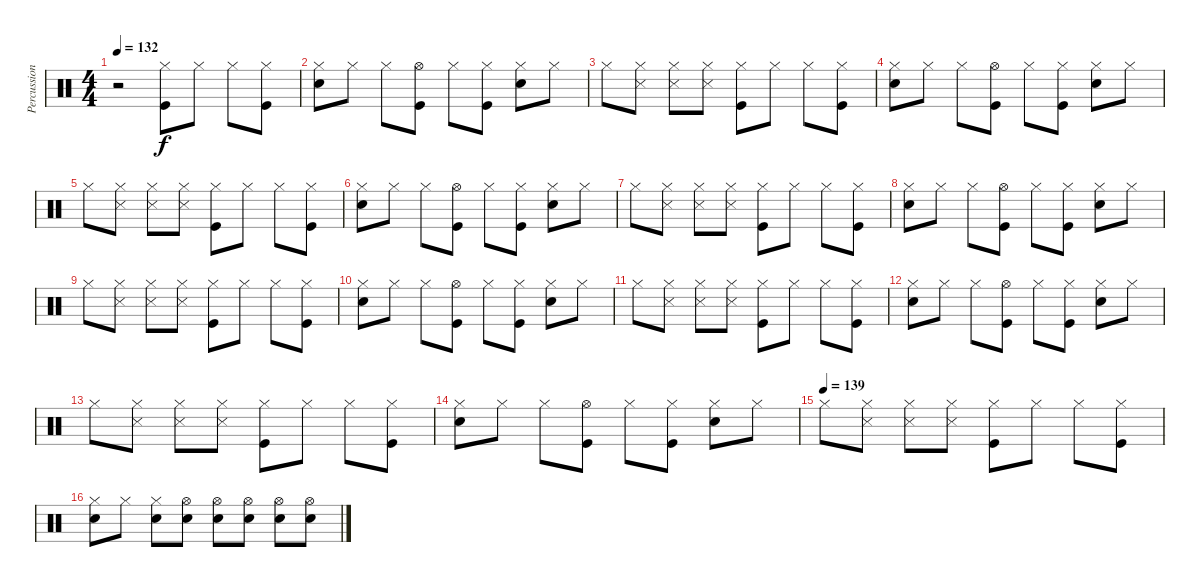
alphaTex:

\track ("Percussion" "Percussion") {instrument percussion}
\staff {score}
\articulation defaults
\ts (4 4)
\tempo 132
\clef neutral
\ks c
r.2{dy f} ("Kick (hit)" "Hi-Hat (closed)").8 "Hi-Hat (closed)".8 "Hi-Hat (closed)".8 ("Kick (hit)" "Hi-Hat (closed)").8 |
("Electric Snare (hit)" "Hi-Hat (closed)").8 "Hi-Hat (closed)".8 "Hi-Hat (closed)".8 ("Kick (hit)" "Hi-Hat (open)").8 "Hi-Hat (closed)".8 ("Kick (hit)" "Hi-Hat (closed)").8 ("Electric Snare (hit)" "Hi-Hat (closed)").8 "Hi-Hat (closed)".8 |
"Hi-Hat (closed)".8 ("Snare (side stick) 3" "Hi-Hat (closed)").8 ("Snare (side stick) 3" "Hi-Hat (closed)").8 ("Snare (side stick) 3" "Hi-Hat (closed)").8 ("Kick (hit)" "Hi-Hat (closed)").8 "Hi-Hat (closed)".8 "Hi-Hat (closed)".8 ("Kick (hit)" "Hi-Hat (closed)").8 |
("Electric Snare (hit)" "Hi-Hat (closed)").8 "Hi-Hat (closed)".8 "Hi-Hat (closed)".8 ("Kick (hit)" "Hi-Hat (open)").8 "Hi-Hat (closed)".8 ("Kick (hit)" "Hi-Hat (closed)").8 ("Electric Snare (hit)" "Hi-Hat (closed)").8 "Hi-Hat (closed)".8 |
"Hi-Hat (closed)".8 ("Snare (side stick) 3" "Hi-Hat (closed)").8 ("Snare (side stick) 3" "Hi-Hat (closed)").8 ("Snare (side stick) 3" "Hi-Hat (closed)").8 ("Kick (hit)" "Hi-Hat (closed)").8 "Hi-Hat (closed)".8 "Hi-Hat (closed)".8 ("Kick (hit)" "Hi-Hat (closed)").8 |
("Electric Snare (hit)" "Hi-Hat (closed)").8 "Hi-Hat (closed)".8 "Hi-Hat (closed)".8 ("Kick (hit)" "Hi-Hat (open)").8 "Hi-Hat (closed)".8 ("Kick (hit)" "Hi-Hat (closed)").8 ("Electric Snare (hit)" "Hi-Hat (closed)").8 "Hi-Hat (closed)".8 |
"Hi-Hat (closed)".8 ("Snare (side stick) 3" "Hi-Hat (closed)").8 ("Snare (side stick) 3" "Hi-Hat (closed)").8 ("Snare (side stick) 3" "Hi-Hat (closed)").8 ("Kick (hit)" "Hi-Hat (closed)").8 "Hi-Hat (closed)".8 "Hi-Hat (closed)".8 ("Kick (hit)" "Hi-Hat (closed)").8 |
("Electric Snare (hit)" "Hi-Hat (closed)").8 "Hi-Hat (closed)".8 "Hi-Hat (closed)".8 ("Kick (hit)" "Hi-Hat (open)").8 "Hi-Hat (closed)".8 ("Kick (hit)" "Hi-Hat (closed)").8 ("Electric Snare (hit)" "Hi-Hat (closed)").8 "Hi-Hat (closed)".8 |
"Hi-Hat (closed)".8 ("Snare (side stick) 3" "Hi-Hat (closed)").8 ("Snare (side stick) 3" "Hi-Hat (closed)").8 ("Snare (side stick) 3" "Hi-Hat (closed)").8 ("Kick (hit)" "Hi-Hat (closed)").8 "Hi-Hat (closed)".8 "Hi-Hat (closed)".8 ("Kick (hit)" "Hi-Hat (closed)").8 |
("Electric Snare (hit)" "Hi-Hat (closed)").8 "Hi-Hat (closed)".8 "Hi-Hat (closed)".8 ("Kick (hit)" "Hi-Hat (open)").8 "Hi-Hat (closed)".8 ("Kick (hit)" "Hi-Hat (closed)").8 ("Electric Snare (hit)" "Hi-Hat (closed)").8 "Hi-Hat (closed)".8 |
"Hi-Hat (closed)".8 ("Snare (side stick) 3" "Hi-Hat (closed)").8 ("Snare (side stick) 3" "Hi-Hat (closed)").8 ("Snare (side stick) 3" "Hi-Hat (closed)").8 ("Kick (hit)" "Hi-Hat (closed)").8 "Hi-Hat (closed)".8 "Hi-Hat (closed)".8 ("Kick (hit)" "Hi-Hat (closed)").8 |
("Electric Snare (hit)" "Hi-Hat (closed)").8 "Hi-Hat (closed)".8 "Hi-Hat (closed)".8 ("Kick (hit)" "Hi-Hat (open)").8 "Hi-Hat (closed)".8 ("Kick (hit)" "Hi-Hat (closed)").8 ("Electric Snare (hit)" "Hi-Hat (closed)").8 "Hi-Hat (closed)".8 |
"Hi-Hat (closed)".8 ("Snare (side stick) 3" "Hi-Hat (closed)").8 ("Snare (side stick) 3" "Hi-Hat (closed)").8 ("Snare (side stick) 3" "Hi-Hat (closed)").8 ("Kick (hit)" "Hi-Hat (closed)").8 "Hi-Hat (closed)".8 "Hi-Hat (closed)".8 ("Kick (hit)" "Hi-Hat (closed)").8 |
("Electric Snare (hit)" "Hi-Hat (closed)").8 "Hi-Hat (closed)".8 "Hi-Hat (closed)".8 ("Kick (hit)" "Hi-Hat (open)").8 "Hi-Hat (closed)".8 ("Kick (hit)" "Hi-Hat (closed)").8 ("Electric Snare (hit)" "Hi-Hat (closed)").8 "Hi-Hat (closed)".8 |
\tempo (139)
"Hi-Hat (closed)".8 ("Snare (side stick) 3" "Hi-Hat (closed)").8 ("Snare (side stick) 3" "Hi-Hat (closed)").8 ("Snare (side stick) 3" "Hi-Hat (closed)").8 ("Kick (hit)" "Hi-Hat (closed)").8 "Hi-Hat (closed)".8 "Hi-Hat (closed)".8 ("Kick (hit)" "Hi-Hat (closed)").8 |
("Electric Snare (hit)" "Hi-Hat (closed)").8 "Hi-Hat (closed)".8 ("Electric Snare (hit)" "Hi-Hat (closed)").8 ("Electric Snare (hit)" "Hi-Hat (open)").8 ("Electric Snare (hit)" "Hi-Hat (open)").8 ("Electric Snare (hit)" "Hi-Hat (open)").8 ("Electric Snare (hit)" "Hi-Hat (open)").8 ("Electric Snare (hit)" "Hi-Hat (open)").8
